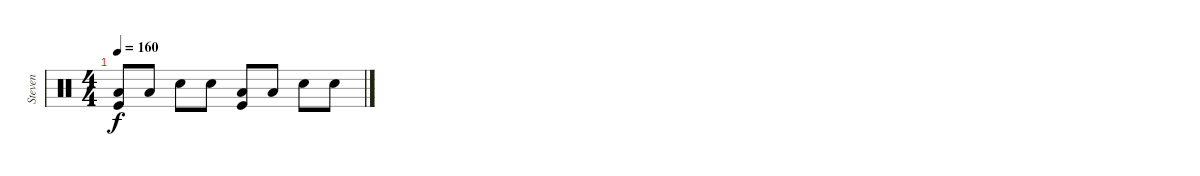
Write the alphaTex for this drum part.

\track ("Steven" "Steven") {instrument percussion}
\staff {score}
\articulation defaults
\ts (4 4)
\tempo 160
\clef neutral
\ks c
("Low Floor Tom (hit)" "Kick (hit)").8{dy f} "Low Floor Tom (hit)".8 "Electric Snare (hit)".8 "Electric Snare (hit)".8 ("Low Floor Tom (hit)" "Kick (hit)").8 "Low Floor Tom (hit)".8 "Electric Snare (hit)".8 "Electric Snare (hit)".8
